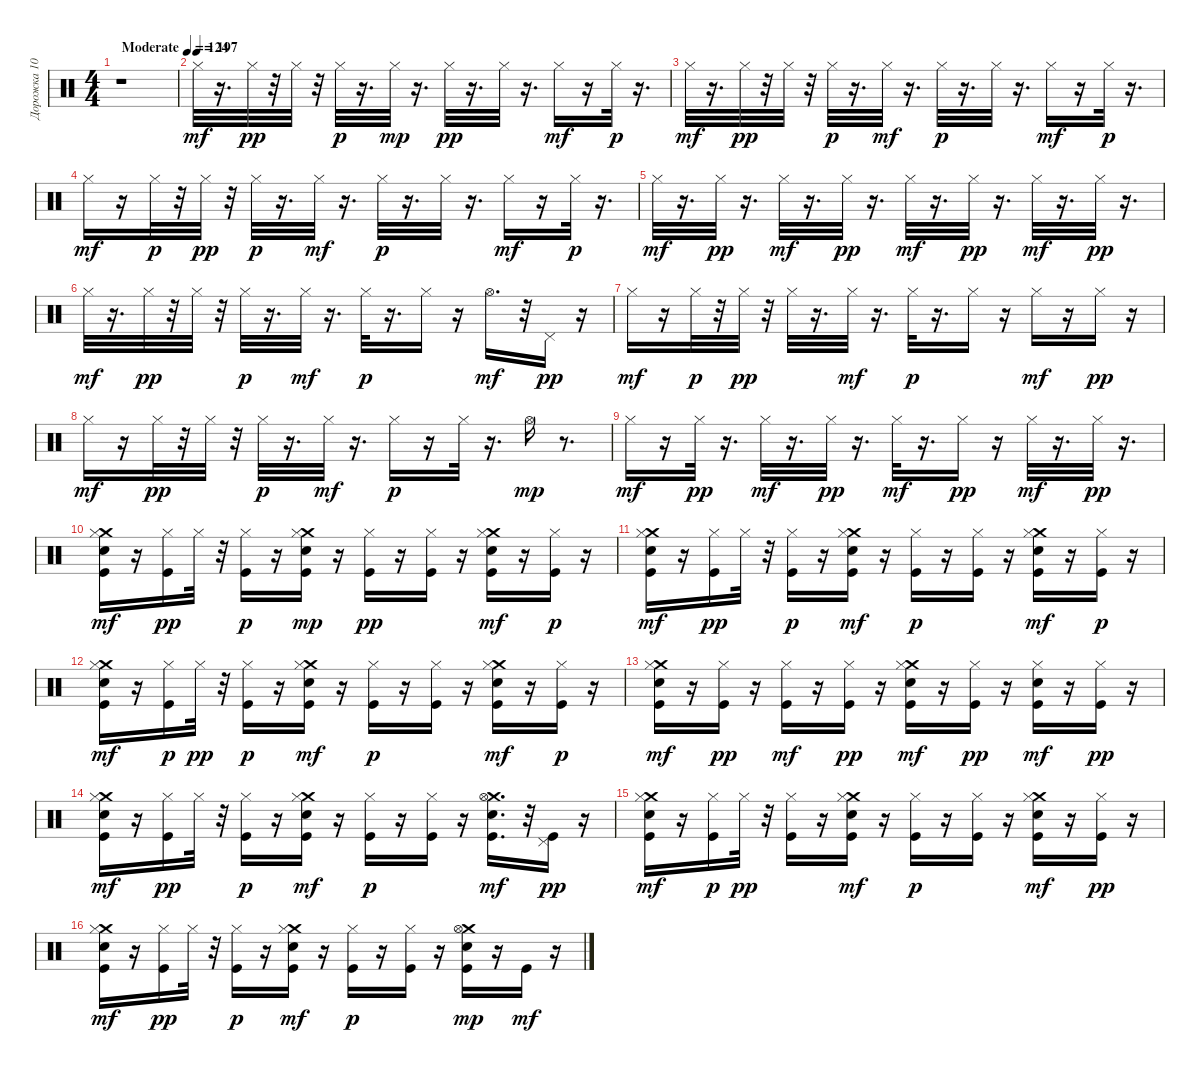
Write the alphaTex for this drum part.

\track ("Дорожка 10" "Дорожка 10") {instrument percussion}
\staff {score}
\articulation defaults
\ts (4 4)
\tempo (124 "Moderate")
\clef neutral
\ks c
r.1{dy mf} |
\tempo (197)
"Hi-Hat (closed)".32 r.16{d} "Hi-Hat (closed)".32{dy pp} r.32 "Hi-Hat (closed)".32 r.32 "Hi-Hat (closed)".32{dy p} r.16{d} "Hi-Hat (closed)".32{dy mp} r.16{d} "Hi-Hat (closed)".32{dy pp} r.16{d} "Hi-Hat (closed)".32 r.16{d} "Hi-Hat (closed)".16{dy mf} r.16 "Hi-Hat (closed)".32{dy p} r.16{d} |
"Hi-Hat (closed)".32{dy mf} r.16{d} "Hi-Hat (closed)".32{dy pp} r.32 "Hi-Hat (closed)".32 r.32 "Hi-Hat (closed)".32{dy p} r.16{d} "Hi-Hat (closed)".32{dy mf} r.16{d} "Hi-Hat (closed)".32{dy p} r.16{d} "Hi-Hat (closed)".32 r.16{d} "Hi-Hat (closed)".16{dy mf} r.16 "Hi-Hat (closed)".32{dy p} r.16{d} |
"Hi-Hat (closed)".16{dy mf} r.16 "Hi-Hat (closed)".32{dy p} r.32 "Hi-Hat (closed)".32{dy pp} r.32 "Hi-Hat (closed)".32{dy p} r.16{d} "Hi-Hat (closed)".32{dy mf} r.16{d} "Hi-Hat (closed)".32{dy p} r.16{d} "Hi-Hat (closed)".32 r.16{d} "Hi-Hat (closed)".16{dy mf} r.16 "Hi-Hat (closed)".32{dy p} r.16{d} |
"Hi-Hat (closed)".32{dy mf} r.16{d} "Hi-Hat (closed)".32{dy pp} r.16{d} "Hi-Hat (closed)".32{dy mf} r.16{d} "Hi-Hat (closed)".32{dy pp} r.16{d} "Hi-Hat (closed)".32{dy mf} r.16{d} "Hi-Hat (closed)".32{dy pp} r.16{d} "Hi-Hat (closed)".32{dy mf} r.16{d} "Hi-Hat (closed)".32{dy pp} r.16{d} |
"Hi-Hat (closed)".32{dy mf} r.16{d} "Hi-Hat (closed)".32{dy pp} r.32 "Hi-Hat (closed)".32 r.32 "Hi-Hat (closed)".32{dy p} r.16{d} "Hi-Hat (closed)".32{dy mf} r.16{d} "Hi-Hat (closed)".32{dy p} r.16{d} "Hi-Hat (closed)".16 r.16 "Hi-Hat (open)".16{d dy mf} r.32 "Pedal Hi-Hat (hit)".16{dy pp} r.16 |
"Hi-Hat (closed)".16{dy mf} r.16 "Hi-Hat (closed)".32{dy p} r.32 "Hi-Hat (closed)".32{dy pp} r.32 "Hi-Hat (closed)".32 r.16{d} "Hi-Hat (closed)".32{dy mf} r.16{d} "Hi-Hat (closed)".32{dy p} r.16{d} "Hi-Hat (closed)".16 r.16 "Hi-Hat (closed)".16{dy mf} r.16 "Hi-Hat (closed)".16{dy pp} r.16 |
"Hi-Hat (closed)".16{dy mf} r.16 "Hi-Hat (closed)".32{dy pp} r.32 "Hi-Hat (closed)".32 r.32 "Hi-Hat (closed)".32{dy p} r.16{d} "Hi-Hat (closed)".32{dy mf} r.16{d} "Hi-Hat (closed)".16{dy p} r.16 "Hi-Hat (closed)".32 r.16{d} "Hi-Hat (open)".16{dy mp} r.8{d} |
"Hi-Hat (closed)".16{dy mf} r.16 "Hi-Hat (closed)".32{dy pp} r.16{d} "Hi-Hat (closed)".32{dy mf} r.16{d} "Hi-Hat (closed)".32{dy pp} r.16{d} "Hi-Hat (closed)".32{dy mf} r.16{d} "Hi-Hat (closed)".16{dy pp} r.16 "Hi-Hat (closed)".32{dy mf} r.16{d} "Hi-Hat (closed)".32{dy pp} r.16{d} |
("Snare (hit) 2" "Crash medium (hit)" "Kick (hit)" "Hi-Hat (closed)").16{dy mf} r.16 ("Kick (hit)" "Hi-Hat (closed)").16{dy pp} "Hi-Hat (closed)".32 r.32 ("Kick (hit)" "Hi-Hat (closed)").16{dy p} r.16 ("Crash medium (hit)" "Snare (hit) 2" "Kick (hit)" "Hi-Hat (closed)").16{dy mp} r.16 ("Kick (hit)" "Hi-Hat (closed)").16{dy pp} r.16 ("Kick (hit)" "Hi-Hat (closed)").16 r.16 ("Crash medium (hit)" "Snare (hit) 2" "Kick (hit)" "Hi-Hat (closed)").16{dy mf} r.16 ("Kick (hit)" "Hi-Hat (closed)").16{dy p} r.16 |
("Crash medium (hit)" "Snare (hit) 2" "Kick (hit)" "Hi-Hat (closed)").16{dy mf} r.16 ("Kick (hit)" "Hi-Hat (closed)").16{dy pp} "Hi-Hat (closed)".32 r.32 ("Kick (hit)" "Hi-Hat (closed)").16{dy p} r.16 ("Crash medium (hit)" "Snare (hit) 2" "Kick (hit)" "Hi-Hat (closed)").16{dy mf} r.16 ("Kick (hit)" "Hi-Hat (closed)").16{dy p} r.16 ("Kick (hit)" "Hi-Hat (closed)").16 r.16 ("Crash medium (hit)" "Snare (hit) 2" "Kick (hit)" "Hi-Hat (closed)").16{dy mf} r.16 ("Kick (hit)" "Hi-Hat (closed)").16{dy p} r.16 |
("Crash medium (hit)" "Snare (hit) 2" "Kick (hit)" "Hi-Hat (closed)").16{dy mf} r.16 ("Kick (hit)" "Hi-Hat (closed)").16{dy p} "Hi-Hat (closed)".32{dy pp} r.32 ("Kick (hit)" "Hi-Hat (closed)").16{dy p} r.16 ("Crash medium (hit)" "Snare (hit) 2" "Kick (hit)" "Hi-Hat (closed)").16{dy mf} r.16 ("Kick (hit)" "Hi-Hat (closed)").16{dy p} r.16 ("Kick (hit)" "Hi-Hat (closed)").16 r.16 ("Crash medium (hit)" "Snare (hit) 2" "Kick (hit)" "Hi-Hat (closed)").16{dy mf} r.16 ("Kick (hit)" "Hi-Hat (closed)").16{dy p} r.16 |
("Crash medium (hit)" "Snare (hit) 2" "Kick (hit)" "Hi-Hat (closed)").16{dy mf} r.16 ("Kick (hit)" "Hi-Hat (closed)").16{dy pp} r.16 ("Kick (hit)" "Hi-Hat (closed)").16{dy mf} r.16 ("Kick (hit)" "Hi-Hat (closed)").16{dy pp} r.16 ("Snare (hit) 2" "Crash medium (hit)" "Kick (hit)" "Hi-Hat (closed)").16{dy mf} r.16 ("Kick (hit)" "Hi-Hat (closed)").16{dy pp} r.16 ("Snare (hit) 2" "Kick (hit)" "Hi-Hat (closed)").16{dy mf} r.16 ("Kick (hit)" "Hi-Hat (closed)").16{dy pp} r.16 |
("Crash medium (hit)" "Snare (hit) 2" "Kick (hit)" "Hi-Hat (closed)").16{dy mf} r.16 ("Kick (hit)" "Hi-Hat (closed)").16{dy pp} "Hi-Hat (closed)".32 r.32 ("Kick (hit)" "Hi-Hat (closed)").16{dy p} r.16 ("Snare (hit) 2" "Crash medium (hit)" "Kick (hit)" "Hi-Hat (closed)").16{dy mf} r.16 ("Kick (hit)" "Hi-Hat (closed)").16{dy p} r.16 ("Kick (hit)" "Hi-Hat (closed)").16 r.16 ("Crash medium (hit)" "Snare (hit) 2" "Kick (hit)" "Hi-Hat (open)").16{d dy mf} r.32 ("Kick (hit)" "Pedal Hi-Hat (hit)").16{dy pp} r.16 |
("Crash medium (hit)" "Snare (hit) 2" "Kick (hit)" "Hi-Hat (closed)").16{dy mf} r.16 ("Kick (hit)" "Hi-Hat (closed)").16{dy p} "Hi-Hat (closed)".32{dy pp} r.32 ("Kick (hit)" "Hi-Hat (closed)").16 r.16 ("Snare (hit) 2" "Crash medium (hit)" "Kick (hit)" "Hi-Hat (closed)").16{dy mf} r.16 ("Kick (hit)" "Hi-Hat (closed)").16{dy p} r.16 ("Kick (hit)" "Hi-Hat (closed)").16 r.16 ("Crash medium (hit)" "Snare (hit) 2" "Kick (hit)" "Hi-Hat (closed)").16{dy mf} r.16 ("Kick (hit)" "Hi-Hat (closed)").16{dy pp} r.16 |
("Crash medium (hit)" "Snare (hit) 2" "Kick (hit)" "Hi-Hat (closed)").16{dy mf} r.16 ("Kick (hit)" "Hi-Hat (closed)").16{dy pp} "Hi-Hat (closed)".32 r.32 ("Kick (hit)" "Hi-Hat (closed)").16{dy p} r.16 ("Snare (hit) 2" "Crash medium (hit)" "Kick (hit)" "Hi-Hat (closed)").16{dy mf} r.16 ("Kick (hit)" "Hi-Hat (closed)").16{dy p} r.16 ("Kick (hit)" "Hi-Hat (closed)").16 r.16 ("Crash medium (hit)" "Snare (hit) 2" "Kick (hit)" "Hi-Hat (open)").16{dy mp} r.16 "Kick (hit)".16{dy mf} r.16
